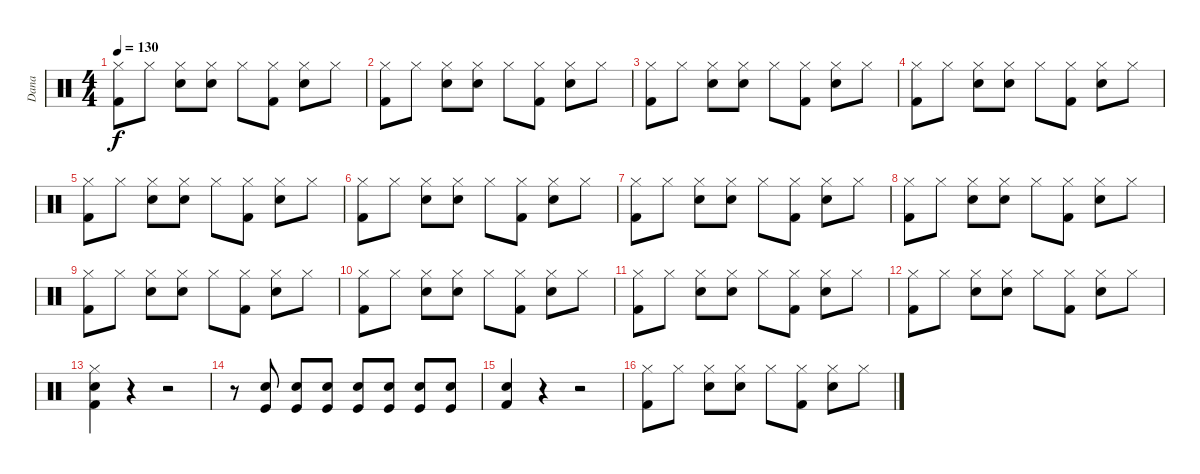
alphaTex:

\track ("Dana" "Dana") {instrument percussion}
\staff {score}
\articulation defaults
\ts (4 4)
\tempo 130
\clef neutral
\ks c
("Hi-Hat (closed)" "Kick (hit) 2").8{dy f} "Hi-Hat (closed)".8 ("Hi-Hat (closed)" "Snare (hit) 2").8 ("Hi-Hat (closed)" "Snare (hit) 2").8 "Hi-Hat (closed)".8 ("Hi-Hat (closed)" "Kick (hit) 2").8 ("Hi-Hat (closed)" "Snare (hit) 2").8 "Hi-Hat (closed)".8 |
("Hi-Hat (closed)" "Kick (hit) 2").8 "Hi-Hat (closed)".8 ("Hi-Hat (closed)" "Snare (hit) 2").8 ("Hi-Hat (closed)" "Snare (hit) 2").8 "Hi-Hat (closed)".8 ("Hi-Hat (closed)" "Kick (hit) 2").8 ("Hi-Hat (closed)" "Snare (hit) 2").8 "Hi-Hat (closed)".8 |
("Hi-Hat (closed)" "Kick (hit) 2").8 "Hi-Hat (closed)".8 ("Hi-Hat (closed)" "Snare (hit) 2").8 ("Hi-Hat (closed)" "Snare (hit) 2").8 "Hi-Hat (closed)".8 ("Hi-Hat (closed)" "Kick (hit) 2").8 ("Hi-Hat (closed)" "Snare (hit) 2").8 "Hi-Hat (closed)".8 |
("Hi-Hat (closed)" "Kick (hit) 2").8 "Hi-Hat (closed)".8 ("Hi-Hat (closed)" "Snare (hit) 2").8 ("Hi-Hat (closed)" "Snare (hit) 2").8 "Hi-Hat (closed)".8 ("Hi-Hat (closed)" "Kick (hit) 2").8 ("Hi-Hat (closed)" "Snare (hit) 2").8 "Hi-Hat (closed)".8 |
("Hi-Hat (closed)" "Kick (hit) 2").8 "Hi-Hat (closed)".8 ("Hi-Hat (closed)" "Snare (hit) 2").8 ("Hi-Hat (closed)" "Snare (hit) 2").8 "Hi-Hat (closed)".8 ("Hi-Hat (closed)" "Kick (hit) 2").8 ("Hi-Hat (closed)" "Snare (hit) 2").8 "Hi-Hat (closed)".8 |
("Hi-Hat (closed)" "Kick (hit) 2").8 "Hi-Hat (closed)".8 ("Hi-Hat (closed)" "Snare (hit) 2").8 ("Hi-Hat (closed)" "Snare (hit) 2").8 "Hi-Hat (closed)".8 ("Hi-Hat (closed)" "Kick (hit) 2").8 ("Hi-Hat (closed)" "Snare (hit) 2").8 "Hi-Hat (closed)".8 |
("Hi-Hat (closed)" "Kick (hit) 2").8 "Hi-Hat (closed)".8 ("Hi-Hat (closed)" "Snare (hit) 2").8 ("Hi-Hat (closed)" "Snare (hit) 2").8 "Hi-Hat (closed)".8 ("Hi-Hat (closed)" "Kick (hit) 2").8 ("Hi-Hat (closed)" "Snare (hit) 2").8 "Hi-Hat (closed)".8 |
("Hi-Hat (closed)" "Kick (hit) 2").8 "Hi-Hat (closed)".8 ("Hi-Hat (closed)" "Snare (hit) 2").8 ("Hi-Hat (closed)" "Snare (hit) 2").8 "Hi-Hat (closed)".8 ("Hi-Hat (closed)" "Kick (hit) 2").8 ("Hi-Hat (closed)" "Snare (hit) 2").8 "Hi-Hat (closed)".8 |
("Hi-Hat (closed)" "Kick (hit) 2").8 "Hi-Hat (closed)".8 ("Hi-Hat (closed)" "Snare (hit) 2").8 ("Hi-Hat (closed)" "Snare (hit) 2").8 "Hi-Hat (closed)".8 ("Hi-Hat (closed)" "Kick (hit) 2").8 ("Hi-Hat (closed)" "Snare (hit) 2").8 "Hi-Hat (closed)".8 |
("Hi-Hat (closed)" "Kick (hit) 2").8 "Hi-Hat (closed)".8 ("Hi-Hat (closed)" "Snare (hit) 2").8 ("Hi-Hat (closed)" "Snare (hit) 2").8 "Hi-Hat (closed)".8 ("Hi-Hat (closed)" "Kick (hit) 2").8 ("Hi-Hat (closed)" "Snare (hit) 2").8 "Hi-Hat (closed)".8 |
("Hi-Hat (closed)" "Kick (hit) 2").8 "Hi-Hat (closed)".8 ("Hi-Hat (closed)" "Snare (hit) 2").8 ("Hi-Hat (closed)" "Snare (hit) 2").8 "Hi-Hat (closed)".8 ("Hi-Hat (closed)" "Kick (hit) 2").8 ("Hi-Hat (closed)" "Snare (hit) 2").8 "Hi-Hat (closed)".8 |
("Hi-Hat (closed)" "Kick (hit) 2").8 "Hi-Hat (closed)".8 ("Hi-Hat (closed)" "Snare (hit) 2").8 ("Hi-Hat (closed)" "Snare (hit) 2").8 "Hi-Hat (closed)".8 ("Hi-Hat (closed)" "Kick (hit) 2").8 ("Hi-Hat (closed)" "Snare (hit) 2").8 "Hi-Hat (closed)".8 |
("Hi-Hat (closed)" "Snare (hit) 2" "Kick (hit) 2").4 r.4 r.2 |
r.8 ("Snare (hit) 2" "Kick (hit)").8 ("Snare (hit) 2" "Kick (hit)").8 ("Snare (hit) 2" "Kick (hit)").8 ("Snare (hit) 2" "Kick (hit)").8 ("Snare (hit) 2" "Kick (hit)").8 ("Snare (hit) 2" "Kick (hit)").8 ("Snare (hit) 2" "Kick (hit)").8 |
("Snare (hit) 2" "Kick (hit) 2").4 r.4 r.2 |
("Hi-Hat (closed)" "Kick (hit) 2").8 "Hi-Hat (closed)".8 ("Hi-Hat (closed)" "Snare (hit) 2").8 ("Hi-Hat (closed)" "Snare (hit) 2").8 "Hi-Hat (closed)".8 ("Hi-Hat (closed)" "Kick (hit) 2").8 ("Hi-Hat (closed)" "Snare (hit) 2").8 "Hi-Hat (closed)".8
